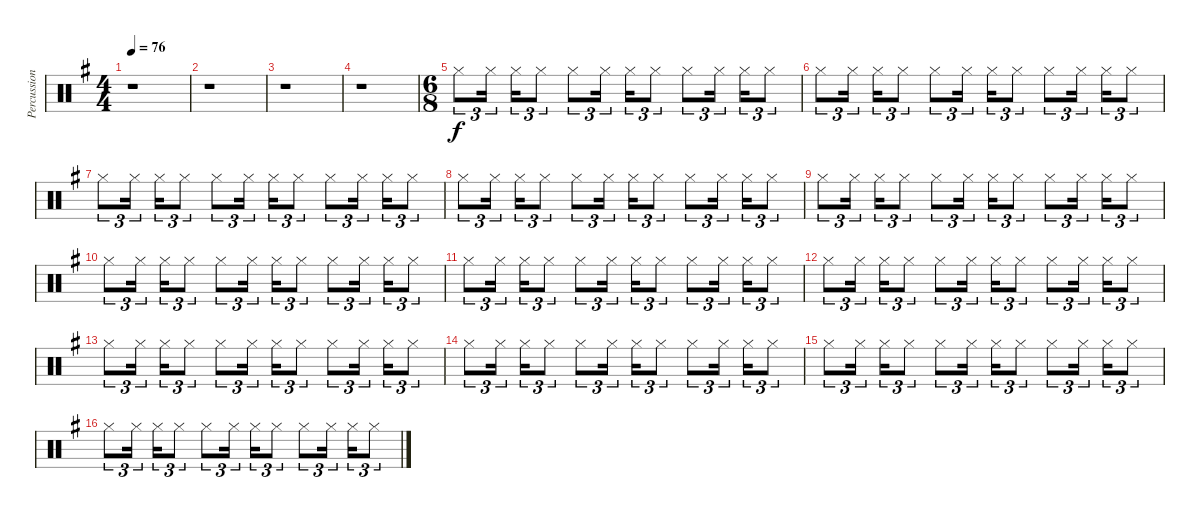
\track ("Percussions 2" "Percussion") {instrument percussion}
\staff {score}
\articulation defaults
\ts (4 4)
\tempo 76
\clef neutral
\ks g
r.1{dy f} |
r.1 |
r.1 |
r.1 |
\ts (6 8)
"Hi-Hat (closed)".8{tu (3 2)} "Hi-Hat (closed)".16{tu (3 2)} "Hi-Hat (closed)".16{tu (3 2)} "Hi-Hat (closed)".8{tu (3 2)} "Hi-Hat (closed)".8{tu (3 2)} "Hi-Hat (closed)".16{tu (3 2)} "Hi-Hat (closed)".16{tu (3 2)} "Hi-Hat (closed)".8{tu (3 2)} "Hi-Hat (closed)".8{tu (3 2)} "Hi-Hat (closed)".16{tu (3 2)} "Hi-Hat (closed)".16{tu (3 2)} "Hi-Hat (closed)".8{tu (3 2)} |
"Hi-Hat (closed)".8{tu (3 2)} "Hi-Hat (closed)".16{tu (3 2)} "Hi-Hat (closed)".16{tu (3 2)} "Hi-Hat (closed)".8{tu (3 2)} "Hi-Hat (closed)".8{tu (3 2)} "Hi-Hat (closed)".16{tu (3 2)} "Hi-Hat (closed)".16{tu (3 2)} "Hi-Hat (closed)".8{tu (3 2)} "Hi-Hat (closed)".8{tu (3 2)} "Hi-Hat (closed)".16{tu (3 2)} "Hi-Hat (closed)".16{tu (3 2)} "Hi-Hat (closed)".8{tu (3 2)} |
"Hi-Hat (closed)".8{tu (3 2)} "Hi-Hat (closed)".16{tu (3 2)} "Hi-Hat (closed)".16{tu (3 2)} "Hi-Hat (closed)".8{tu (3 2)} "Hi-Hat (closed)".8{tu (3 2)} "Hi-Hat (closed)".16{tu (3 2)} "Hi-Hat (closed)".16{tu (3 2)} "Hi-Hat (closed)".8{tu (3 2)} "Hi-Hat (closed)".8{tu (3 2)} "Hi-Hat (closed)".16{tu (3 2)} "Hi-Hat (closed)".16{tu (3 2)} "Hi-Hat (closed)".8{tu (3 2)} |
"Hi-Hat (closed)".8{tu (3 2)} "Hi-Hat (closed)".16{tu (3 2)} "Hi-Hat (closed)".16{tu (3 2)} "Hi-Hat (closed)".8{tu (3 2)} "Hi-Hat (closed)".8{tu (3 2)} "Hi-Hat (closed)".16{tu (3 2)} "Hi-Hat (closed)".16{tu (3 2)} "Hi-Hat (closed)".8{tu (3 2)} "Hi-Hat (closed)".8{tu (3 2)} "Hi-Hat (closed)".16{tu (3 2)} "Hi-Hat (closed)".16{tu (3 2)} "Hi-Hat (closed)".8{tu (3 2)} |
"Hi-Hat (closed)".8{tu (3 2)} "Hi-Hat (closed)".16{tu (3 2)} "Hi-Hat (closed)".16{tu (3 2)} "Hi-Hat (closed)".8{tu (3 2)} "Hi-Hat (closed)".8{tu (3 2)} "Hi-Hat (closed)".16{tu (3 2)} "Hi-Hat (closed)".16{tu (3 2)} "Hi-Hat (closed)".8{tu (3 2)} "Hi-Hat (closed)".8{tu (3 2)} "Hi-Hat (closed)".16{tu (3 2)} "Hi-Hat (closed)".16{tu (3 2)} "Hi-Hat (closed)".8{tu (3 2)} |
"Hi-Hat (closed)".8{tu (3 2)} "Hi-Hat (closed)".16{tu (3 2)} "Hi-Hat (closed)".16{tu (3 2)} "Hi-Hat (closed)".8{tu (3 2)} "Hi-Hat (closed)".8{tu (3 2)} "Hi-Hat (closed)".16{tu (3 2)} "Hi-Hat (closed)".16{tu (3 2)} "Hi-Hat (closed)".8{tu (3 2)} "Hi-Hat (closed)".8{tu (3 2)} "Hi-Hat (closed)".16{tu (3 2)} "Hi-Hat (closed)".16{tu (3 2)} "Hi-Hat (closed)".8{tu (3 2)} |
"Hi-Hat (closed)".8{tu (3 2)} "Hi-Hat (closed)".16{tu (3 2)} "Hi-Hat (closed)".16{tu (3 2)} "Hi-Hat (closed)".8{tu (3 2)} "Hi-Hat (closed)".8{tu (3 2)} "Hi-Hat (closed)".16{tu (3 2)} "Hi-Hat (closed)".16{tu (3 2)} "Hi-Hat (closed)".8{tu (3 2)} "Hi-Hat (closed)".8{tu (3 2)} "Hi-Hat (closed)".16{tu (3 2)} "Hi-Hat (closed)".16{tu (3 2)} "Hi-Hat (closed)".8{tu (3 2)} |
"Hi-Hat (closed)".8{tu (3 2)} "Hi-Hat (closed)".16{tu (3 2)} "Hi-Hat (closed)".16{tu (3 2)} "Hi-Hat (closed)".8{tu (3 2)} "Hi-Hat (closed)".8{tu (3 2)} "Hi-Hat (closed)".16{tu (3 2)} "Hi-Hat (closed)".16{tu (3 2)} "Hi-Hat (closed)".8{tu (3 2)} "Hi-Hat (closed)".8{tu (3 2)} "Hi-Hat (closed)".16{tu (3 2)} "Hi-Hat (closed)".16{tu (3 2)} "Hi-Hat (closed)".8{tu (3 2)} |
"Hi-Hat (closed)".8{tu (3 2)} "Hi-Hat (closed)".16{tu (3 2)} "Hi-Hat (closed)".16{tu (3 2)} "Hi-Hat (closed)".8{tu (3 2)} "Hi-Hat (closed)".8{tu (3 2)} "Hi-Hat (closed)".16{tu (3 2)} "Hi-Hat (closed)".16{tu (3 2)} "Hi-Hat (closed)".8{tu (3 2)} "Hi-Hat (closed)".8{tu (3 2)} "Hi-Hat (closed)".16{tu (3 2)} "Hi-Hat (closed)".16{tu (3 2)} "Hi-Hat (closed)".8{tu (3 2)} |
"Hi-Hat (closed)".8{tu (3 2)} "Hi-Hat (closed)".16{tu (3 2)} "Hi-Hat (closed)".16{tu (3 2)} "Hi-Hat (closed)".8{tu (3 2)} "Hi-Hat (closed)".8{tu (3 2)} "Hi-Hat (closed)".16{tu (3 2)} "Hi-Hat (closed)".16{tu (3 2)} "Hi-Hat (closed)".8{tu (3 2)} "Hi-Hat (closed)".8{tu (3 2)} "Hi-Hat (closed)".16{tu (3 2)} "Hi-Hat (closed)".16{tu (3 2)} "Hi-Hat (closed)".8{tu (3 2)} |
"Hi-Hat (closed)".8{tu (3 2)} "Hi-Hat (closed)".16{tu (3 2)} "Hi-Hat (closed)".16{tu (3 2)} "Hi-Hat (closed)".8{tu (3 2)} "Hi-Hat (closed)".8{tu (3 2)} "Hi-Hat (closed)".16{tu (3 2)} "Hi-Hat (closed)".16{tu (3 2)} "Hi-Hat (closed)".8{tu (3 2)} "Hi-Hat (closed)".8{tu (3 2)} "Hi-Hat (closed)".16{tu (3 2)} "Hi-Hat (closed)".16{tu (3 2)} "Hi-Hat (closed)".8{tu (3 2)} |
"Hi-Hat (closed)".8{tu (3 2)} "Hi-Hat (closed)".16{tu (3 2)} "Hi-Hat (closed)".16{tu (3 2)} "Hi-Hat (closed)".8{tu (3 2)} "Hi-Hat (closed)".8{tu (3 2)} "Hi-Hat (closed)".16{tu (3 2)} "Hi-Hat (closed)".16{tu (3 2)} "Hi-Hat (closed)".8{tu (3 2)} "Hi-Hat (closed)".8{tu (3 2)} "Hi-Hat (closed)".16{tu (3 2)} "Hi-Hat (closed)".16{tu (3 2)} "Hi-Hat (closed)".8{tu (3 2)}
